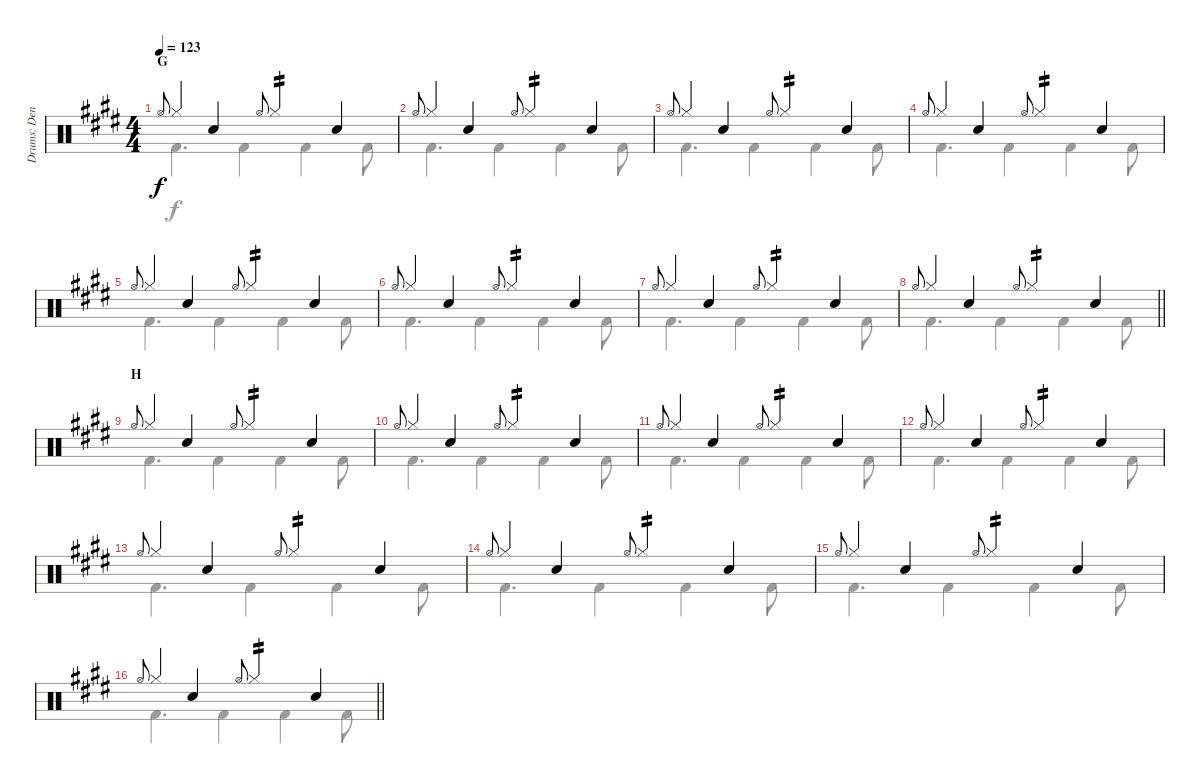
\track ("Drums: Denny" "Drums: Den") {instrument percussion}
\staff {score}
\articulation defaults
\voice
\ts (4 4)
\section ("" "G")
\tempo 123
\clef neutral
\ks e "Hi-Hat (open)".8{gr onbeat dy f} "Hi-Hat (closed)".4 "Snare (hit) 2".4 "Hi-Hat (open)".8{gr onbeat} "Hi-Hat (closed)".4{tp 2} "Snare (hit) 2".4
|
"Hi-Hat (open)".8{gr onbeat} "Hi-Hat (closed)".4 "Snare (hit) 2".4 "Hi-Hat (open)".8{gr onbeat} "Hi-Hat (closed)".4{tp 2} "Snare (hit) 2".4 |
"Hi-Hat (open)".8{gr onbeat} "Hi-Hat (closed)".4 "Snare (hit) 2".4 "Hi-Hat (open)".8{gr onbeat} "Hi-Hat (closed)".4{tp 2} "Snare (hit) 2".4 |
"Hi-Hat (open)".8{gr onbeat} "Hi-Hat (closed)".4 "Snare (hit) 2".4 "Hi-Hat (open)".8{gr onbeat} "Hi-Hat (closed)".4{tp 2} "Snare (hit) 2".4 |
"Hi-Hat (open)".8{gr onbeat} "Hi-Hat (closed)".4 "Snare (hit) 2".4 "Hi-Hat (open)".8{gr onbeat} "Hi-Hat (closed)".4{tp 2} "Snare (hit) 2".4 |
"Hi-Hat (open)".8{gr onbeat} "Hi-Hat (closed)".4 "Snare (hit) 2".4 "Hi-Hat (open)".8{gr onbeat} "Hi-Hat (closed)".4{tp 2} "Snare (hit) 2".4 |
"Hi-Hat (open)".8{gr onbeat} "Hi-Hat (closed)".4 "Snare (hit) 2".4 "Hi-Hat (open)".8{gr onbeat} "Hi-Hat (closed)".4{tp 2} "Snare (hit) 2".4 |
\barLineRight lightlight "Hi-Hat (open)".8{gr onbeat} "Hi-Hat (closed)".4 "Snare (hit) 2".4 "Hi-Hat (open)".8{gr onbeat} "Hi-Hat (closed)".4{tp 2} "Snare (hit) 2".4
|
\section ("" "H")
"Hi-Hat (open)".8{gr onbeat} "Hi-Hat (closed)".4 "Snare (hit) 2".4 "Hi-Hat (open)".8{gr onbeat} "Hi-Hat (closed)".4{tp 2} "Snare (hit) 2".4 |
"Hi-Hat (open)".8{gr onbeat} "Hi-Hat (closed)".4 "Snare (hit) 2".4 "Hi-Hat (open)".8{gr onbeat} "Hi-Hat (closed)".4{tp 2} "Snare (hit) 2".4 |
"Hi-Hat (open)".8{gr onbeat} "Hi-Hat (closed)".4 "Snare (hit) 2".4 "Hi-Hat (open)".8{gr onbeat} "Hi-Hat (closed)".4{tp 2} "Snare (hit) 2".4 |
"Hi-Hat (open)".8{gr onbeat} "Hi-Hat (closed)".4 "Snare (hit) 2".4 "Hi-Hat (open)".8{gr onbeat} "Hi-Hat (closed)".4{tp 2} "Snare (hit) 2".4 |
"Hi-Hat (open)".8{gr onbeat} "Hi-Hat (closed)".4 "Snare (hit) 2".4 "Hi-Hat (open)".8{gr onbeat} "Hi-Hat (closed)".4{tp 2} "Snare (hit) 2".4 |
"Hi-Hat (open)".8{gr onbeat} "Hi-Hat (closed)".4 "Snare (hit) 2".4 "Hi-Hat (open)".8{gr onbeat} "Hi-Hat (closed)".4{tp 2} "Snare (hit) 2".4 |
"Hi-Hat (open)".8{gr onbeat} "Hi-Hat (closed)".4 "Snare (hit) 2".4 "Hi-Hat (open)".8{gr onbeat} "Hi-Hat (closed)".4{tp 2} "Snare (hit) 2".4 |
\barLineRight lightlight "Hi-Hat (open)".8{gr onbeat} "Hi-Hat (closed)".4 "Snare (hit) 2".4 "Hi-Hat (open)".8{gr onbeat} "Hi-Hat (closed)".4{tp 2} "Snare (hit) 2".4
\voice
\clef neutral
\ottava regular
\simile none
\ks e "Kick (hit) 2".4{d dy f} "Kick (hit) 2".4 "Kick (hit) 2".4 "Kick (hit) 2".8
|
"Kick (hit) 2".4{d} "Kick (hit) 2".4 "Kick (hit) 2".4 "Kick (hit) 2".8 |
"Kick (hit) 2".4{d} "Kick (hit) 2".4 "Kick (hit) 2".4 "Kick (hit) 2".8 |
"Kick (hit) 2".4{d} "Kick (hit) 2".4 "Kick (hit) 2".4 "Kick (hit) 2".8 |
"Kick (hit) 2".4{d} "Kick (hit) 2".4 "Kick (hit) 2".4 "Kick (hit) 2".8 |
"Kick (hit) 2".4{d} "Kick (hit) 2".4 "Kick (hit) 2".4 "Kick (hit) 2".8 |
"Kick (hit) 2".4{d} "Kick (hit) 2".4 "Kick (hit) 2".4 "Kick (hit) 2".8 |
\barLineRight lightlight "Kick (hit) 2".4{d} "Kick (hit) 2".4 "Kick (hit) 2".4 "Kick (hit) 2".8
|
"Kick (hit) 2".4{d} "Kick (hit) 2".4 "Kick (hit) 2".4 "Kick (hit) 2".8 |
"Kick (hit) 2".4{d} "Kick (hit) 2".4 "Kick (hit) 2".4 "Kick (hit) 2".8 |
"Kick (hit) 2".4{d} "Kick (hit) 2".4 "Kick (hit) 2".4 "Kick (hit) 2".8 |
"Kick (hit) 2".4{d} "Kick (hit) 2".4 "Kick (hit) 2".4 "Kick (hit) 2".8 |
"Kick (hit) 2".4{d} "Kick (hit) 2".4 "Kick (hit) 2".4 "Kick (hit) 2".8 |
"Kick (hit) 2".4{d} "Kick (hit) 2".4 "Kick (hit) 2".4 "Kick (hit) 2".8 |
"Kick (hit) 2".4{d} "Kick (hit) 2".4 "Kick (hit) 2".4 "Kick (hit) 2".8 |
\barLineRight lightlight "Kick (hit) 2".4{d} "Kick (hit) 2".4 "Kick (hit) 2".4 "Kick (hit) 2".8
